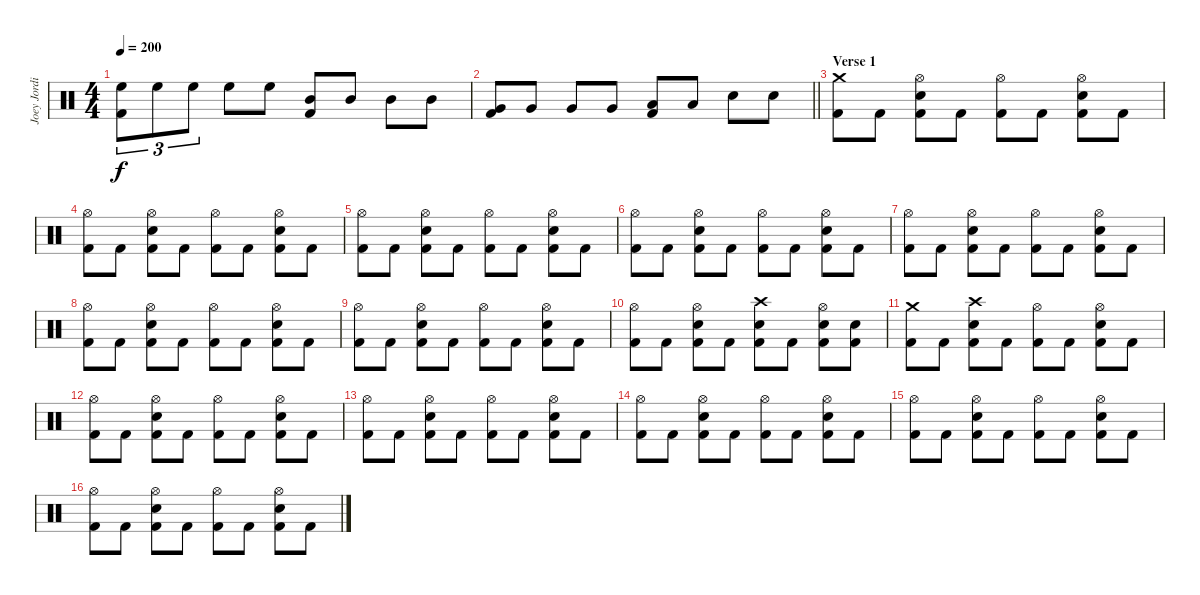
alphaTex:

\track ("Joey Jordison" "Joey Jordi") {instrument percussion}
\staff {score}
\articulation defaults
\ts (4 4)
\tempo 200
\clef neutral
\ks c
("High Floor Tom (hit)" "Kick (hit) 2").8{tu (3 2) dy f} "High Floor Tom (hit)".8{tu (3 2)} "High Floor Tom (hit)".8{tu (3 2)} "High Floor Tom (hit)".8 "High Floor Tom (hit)".8 ("Mid Tom (hit)" "Kick (hit) 2").8 "Mid Tom (hit)".8 "Mid Tom (hit)".8 "Mid Tom (hit)".8 |
\barLineRight lightlight
("Very Low Tom (hit)" "Kick (hit) 2").8 "Very Low Tom (hit)".8 "Very Low Tom (hit)".8 "Very Low Tom (hit)".8 ("Low Floor Tom (hit)" "Kick (hit) 2").8 "Low Floor Tom (hit)".8 "Electric Snare (hit)".8 "Electric Snare (hit)".8 |
\section ("" "Verse 1")
("Crash medium (hit)" "Kick (hit) 2").8 "Kick (hit) 2".8 ("Hi-Hat (open)" "Electric Snare (hit)" "Kick (hit) 2").8 "Kick (hit) 2".8 ("Hi-Hat (open)" "Kick (hit) 2").8 "Kick (hit) 2".8 ("Hi-Hat (open)" "Electric Snare (hit)" "Kick (hit) 2").8 "Kick (hit) 2".8 |
("Hi-Hat (open)" "Kick (hit) 2").8 "Kick (hit) 2".8 ("Hi-Hat (open)" "Electric Snare (hit)" "Kick (hit) 2").8 "Kick (hit) 2".8 ("Hi-Hat (open)" "Kick (hit) 2").8 "Kick (hit) 2".8 ("Hi-Hat (open)" "Electric Snare (hit)" "Kick (hit) 2").8 "Kick (hit) 2".8 |
("Hi-Hat (open)" "Kick (hit) 2").8 "Kick (hit) 2".8 ("Hi-Hat (open)" "Electric Snare (hit)" "Kick (hit) 2").8 "Kick (hit) 2".8 ("Hi-Hat (open)" "Kick (hit) 2").8 "Kick (hit) 2".8 ("Hi-Hat (open)" "Electric Snare (hit)" "Kick (hit) 2").8 "Kick (hit) 2".8 |
("Hi-Hat (open)" "Kick (hit) 2").8 "Kick (hit) 2".8 ("Hi-Hat (open)" "Electric Snare (hit)" "Kick (hit) 2").8 "Kick (hit) 2".8 ("Hi-Hat (open)" "Kick (hit) 2").8 "Kick (hit) 2".8 ("Hi-Hat (open)" "Electric Snare (hit)" "Kick (hit) 2").8 "Kick (hit) 2".8 |
("Hi-Hat (open)" "Kick (hit) 2").8 "Kick (hit) 2".8 ("Hi-Hat (open)" "Electric Snare (hit)" "Kick (hit) 2").8 "Kick (hit) 2".8 ("Hi-Hat (open)" "Kick (hit) 2").8 "Kick (hit) 2".8 ("Hi-Hat (open)" "Electric Snare (hit)" "Kick (hit) 2").8 "Kick (hit) 2".8 |
("Hi-Hat (open)" "Kick (hit) 2").8 "Kick (hit) 2".8 ("Hi-Hat (open)" "Electric Snare (hit)" "Kick (hit) 2").8 "Kick (hit) 2".8 ("Hi-Hat (open)" "Kick (hit) 2").8 "Kick (hit) 2".8 ("Hi-Hat (open)" "Electric Snare (hit)" "Kick (hit) 2").8 "Kick (hit) 2".8 |
("Hi-Hat (open)" "Kick (hit) 2").8 "Kick (hit) 2".8 ("Hi-Hat (open)" "Electric Snare (hit)" "Kick (hit) 2").8 "Kick (hit) 2".8 ("Hi-Hat (open)" "Kick (hit) 2").8 "Kick (hit) 2".8 ("Hi-Hat (open)" "Electric Snare (hit)" "Kick (hit) 2").8 "Kick (hit) 2".8 |
("Hi-Hat (open)" "Kick (hit) 2").8 "Kick (hit) 2".8 ("Hi-Hat (open)" "Electric Snare (hit)" "Kick (hit) 2").8 "Kick (hit) 2".8 ("Crash high (hit)" "Electric Snare (hit)" "Kick (hit) 2").8 "Kick (hit) 2".8 ("Hi-Hat (open)" "Electric Snare (hit)" "Kick (hit) 2").8 ("Electric Snare (hit)" "Kick (hit) 2").8 |
("Crash medium (hit)" "Kick (hit) 2").8 "Kick (hit) 2".8 ("Crash high (hit)" "Electric Snare (hit)" "Kick (hit) 2").8 "Kick (hit) 2".8 ("Hi-Hat (open)" "Kick (hit) 2").8 "Kick (hit) 2".8 ("Hi-Hat (open)" "Electric Snare (hit)" "Kick (hit) 2").8 "Kick (hit) 2".8 |
("Hi-Hat (open)" "Kick (hit) 2").8 "Kick (hit) 2".8 ("Hi-Hat (open)" "Electric Snare (hit)" "Kick (hit) 2").8 "Kick (hit) 2".8 ("Hi-Hat (open)" "Kick (hit) 2").8 "Kick (hit) 2".8 ("Hi-Hat (open)" "Electric Snare (hit)" "Kick (hit) 2").8 "Kick (hit) 2".8 |
("Hi-Hat (open)" "Kick (hit) 2").8 "Kick (hit) 2".8 ("Hi-Hat (open)" "Electric Snare (hit)" "Kick (hit) 2").8 "Kick (hit) 2".8 ("Hi-Hat (open)" "Kick (hit) 2").8 "Kick (hit) 2".8 ("Hi-Hat (open)" "Electric Snare (hit)" "Kick (hit) 2").8 "Kick (hit) 2".8 |
("Hi-Hat (open)" "Kick (hit) 2").8 "Kick (hit) 2".8 ("Hi-Hat (open)" "Electric Snare (hit)" "Kick (hit) 2").8 "Kick (hit) 2".8 ("Hi-Hat (open)" "Kick (hit) 2").8 "Kick (hit) 2".8 ("Hi-Hat (open)" "Electric Snare (hit)" "Kick (hit) 2").8 "Kick (hit) 2".8 |
("Hi-Hat (open)" "Kick (hit) 2").8 "Kick (hit) 2".8 ("Hi-Hat (open)" "Electric Snare (hit)" "Kick (hit) 2").8 "Kick (hit) 2".8 ("Hi-Hat (open)" "Kick (hit) 2").8 "Kick (hit) 2".8 ("Hi-Hat (open)" "Electric Snare (hit)" "Kick (hit) 2").8 "Kick (hit) 2".8 |
("Hi-Hat (open)" "Kick (hit) 2").8 "Kick (hit) 2".8 ("Hi-Hat (open)" "Electric Snare (hit)" "Kick (hit) 2").8 "Kick (hit) 2".8 ("Hi-Hat (open)" "Kick (hit) 2").8 "Kick (hit) 2".8 ("Hi-Hat (open)" "Electric Snare (hit)" "Kick (hit) 2").8 "Kick (hit) 2".8
